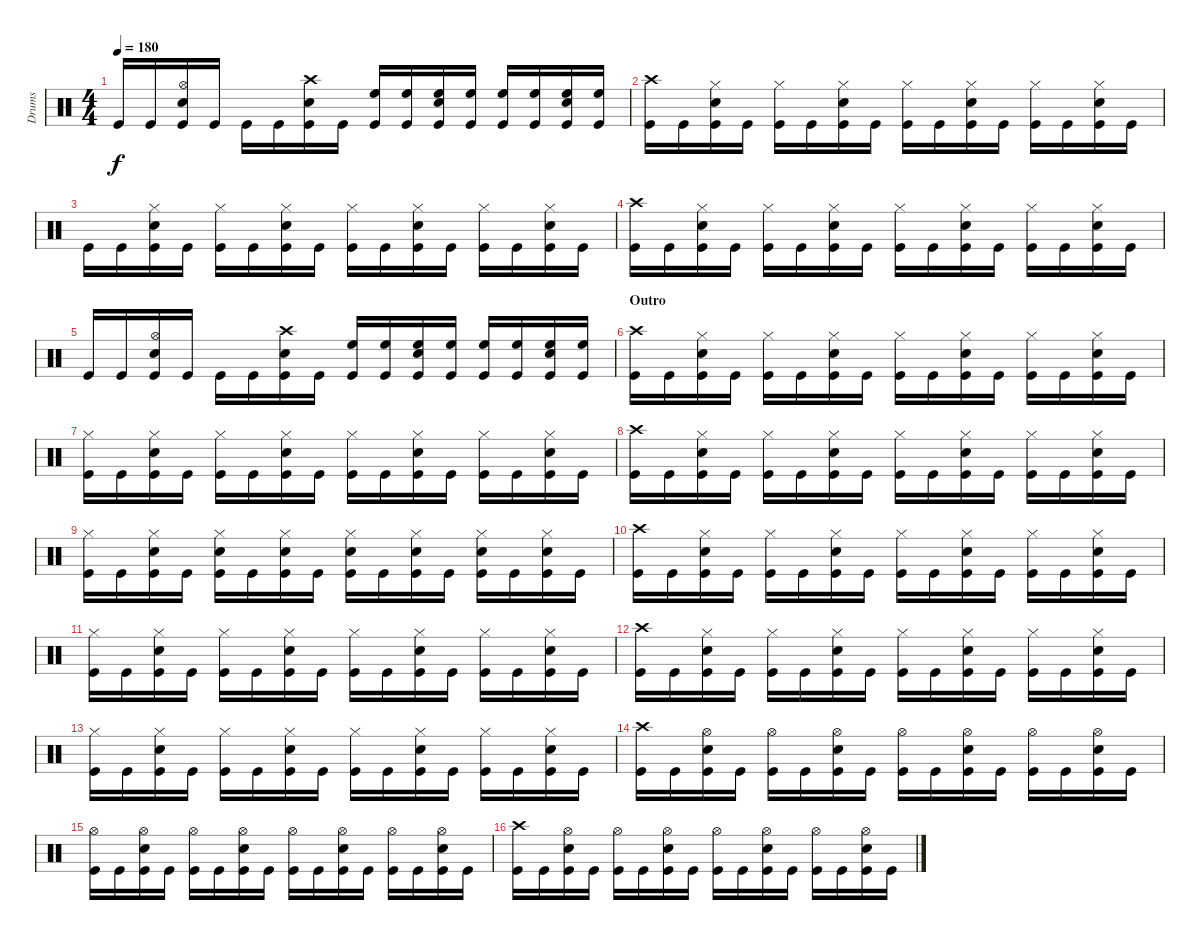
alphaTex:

\track ("Drums" "Drums") {instrument percussion}
\staff {score}
\articulation defaults
\ts (4 4)
\tempo 180
\clef neutral
\ks c "Kick (hit)".16{dy f} "Kick (hit)".16
("Hi-Hat (open)" "Electric Snare (hit)" "Kick (hit)").16 "Kick (hit)".16 "Kick (hit)".16 "Kick (hit)".16 ("Crash high (hit)" "Electric Snare (hit)" "Kick (hit)").16 "Kick (hit)".16 ("High Floor Tom (hit)" "Kick (hit)").16 ("High Floor Tom (hit)" "Kick (hit)").16 ("High Floor Tom (hit)" "Electric Snare (hit)" "Kick (hit)").16 ("High Floor Tom (hit)" "Kick (hit)").16 ("High Floor Tom (hit)" "Kick (hit)").16 ("High Floor Tom (hit)" "Kick (hit)").16 ("High Floor Tom (hit)" "Electric Snare (hit)" "Kick (hit)").16 ("High Floor Tom (hit)" "Kick (hit)").16 |
("Crash high (hit)" "Kick (hit)").16 "Kick (hit)".16 ("Hi-Hat (closed)" "Electric Snare (hit)" "Kick (hit)").16 "Kick (hit)".16 ("Hi-Hat (closed)" "Kick (hit)").16 "Kick (hit)".16 ("Hi-Hat (closed)" "Electric Snare (hit)" "Kick (hit)").16 "Kick (hit)".16 ("Hi-Hat (closed)" "Kick (hit)").16 "Kick (hit)".16 ("Hi-Hat (closed)" "Electric Snare (hit)" "Kick (hit)").16 "Kick (hit)".16 ("Hi-Hat (closed)" "Kick (hit)").16 "Kick (hit)".16 ("Hi-Hat (closed)" "Electric Snare (hit)" "Kick (hit)").16 "Kick (hit)".16 |
"Kick (hit)".16 "Kick (hit)".16 ("Hi-Hat (closed)" "Electric Snare (hit)" "Kick (hit)").16 "Kick (hit)".16 ("Hi-Hat (closed)" "Kick (hit)").16 "Kick (hit)".16 ("Hi-Hat (closed)" "Electric Snare (hit)" "Kick (hit)").16 "Kick (hit)".16 ("Hi-Hat (closed)" "Kick (hit)").16 "Kick (hit)".16 ("Hi-Hat (closed)" "Electric Snare (hit)" "Kick (hit)").16 "Kick (hit)".16 ("Hi-Hat (closed)" "Kick (hit)").16 "Kick (hit)".16 ("Hi-Hat (closed)" "Electric Snare (hit)" "Kick (hit)").16 "Kick (hit)".16 |
("Crash high (hit)" "Kick (hit)").16 "Kick (hit)".16 ("Hi-Hat (closed)" "Electric Snare (hit)" "Kick (hit)").16 "Kick (hit)".16 ("Hi-Hat (closed)" "Kick (hit)").16 "Kick (hit)".16 ("Hi-Hat (closed)" "Electric Snare (hit)" "Kick (hit)").16 "Kick (hit)".16 ("Hi-Hat (closed)" "Kick (hit)").16 "Kick (hit)".16 ("Hi-Hat (closed)" "Electric Snare (hit)" "Kick (hit)").16 "Kick (hit)".16 ("Hi-Hat (closed)" "Kick (hit)").16 "Kick (hit)".16 ("Hi-Hat (closed)" "Electric Snare (hit)" "Kick (hit)").16 "Kick (hit)".16 |
"Kick (hit)".16 "Kick (hit)".16 ("Hi-Hat (open)" "Electric Snare (hit)" "Kick (hit)").16 "Kick (hit)".16 "Kick (hit)".16 "Kick (hit)".16 ("Crash high (hit)" "Electric Snare (hit)" "Kick (hit)").16 "Kick (hit)".16 ("High Floor Tom (hit)" "Kick (hit)").16 ("High Floor Tom (hit)" "Kick (hit)").16 ("High Floor Tom (hit)" "Electric Snare (hit)" "Kick (hit)").16 ("High Floor Tom (hit)" "Kick (hit)").16 ("High Floor Tom (hit)" "Kick (hit)").16 ("High Floor Tom (hit)" "Kick (hit)").16 ("High Floor Tom (hit)" "Electric Snare (hit)" "Kick (hit)").16 ("High Floor Tom (hit)" "Kick (hit)").16 |
\section ("" "Outro")
("Crash high (hit)" "Kick (hit)").16 "Kick (hit)".16 ("Hi-Hat (closed)" "Electric Snare (hit)" "Kick (hit)").16 "Kick (hit)".16 ("Hi-Hat (closed)" "Kick (hit)").16 "Kick (hit)".16 ("Hi-Hat (closed)" "Electric Snare (hit)" "Kick (hit)").16 "Kick (hit)".16 ("Hi-Hat (closed)" "Kick (hit)").16 "Kick (hit)".16 ("Hi-Hat (closed)" "Electric Snare (hit)" "Kick (hit)").16 "Kick (hit)".16 ("Hi-Hat (closed)" "Kick (hit)").16 "Kick (hit)".16 ("Hi-Hat (closed)" "Electric Snare (hit)" "Kick (hit)").16 "Kick (hit)".16 |
("Hi-Hat (closed)" "Kick (hit)").16 "Kick (hit)".16 ("Hi-Hat (closed)" "Electric Snare (hit)" "Kick (hit)").16 "Kick (hit)".16 ("Hi-Hat (closed)" "Kick (hit)").16 "Kick (hit)".16 ("Hi-Hat (closed)" "Electric Snare (hit)" "Kick (hit)").16 "Kick (hit)".16 ("Hi-Hat (closed)" "Kick (hit)").16 "Kick (hit)".16 ("Hi-Hat (closed)" "Electric Snare (hit)" "Kick (hit)").16 "Kick (hit)".16 ("Hi-Hat (closed)" "Kick (hit)").16 "Kick (hit)".16 ("Hi-Hat (closed)" "Electric Snare (hit)" "Kick (hit)").16 "Kick (hit)".16 |
("Crash high (hit)" "Kick (hit)").16 "Kick (hit)".16 ("Hi-Hat (closed)" "Electric Snare (hit)" "Kick (hit)").16 "Kick (hit)".16 ("Hi-Hat (closed)" "Kick (hit)").16 "Kick (hit)".16 ("Hi-Hat (closed)" "Electric Snare (hit)" "Kick (hit)").16 "Kick (hit)".16 ("Hi-Hat (closed)" "Kick (hit)").16 "Kick (hit)".16 ("Hi-Hat (closed)" "Electric Snare (hit)" "Kick (hit)").16 "Kick (hit)".16 ("Hi-Hat (closed)" "Kick (hit)").16 "Kick (hit)".16 ("Hi-Hat (closed)" "Electric Snare (hit)" "Kick (hit)").16 "Kick (hit)".16 |
("Hi-Hat (closed)" "Kick (hit)").16 "Kick (hit)".16 ("Hi-Hat (closed)" "Electric Snare (hit)" "Kick (hit)").16 "Kick (hit)".16 ("Hi-Hat (closed)" "Electric Snare (hit)" "Kick (hit)").16 "Kick (hit)".16 ("Hi-Hat (closed)" "Electric Snare (hit)" "Kick (hit)").16 "Kick (hit)".16 ("Hi-Hat (closed)" "Electric Snare (hit)" "Kick (hit)").16 "Kick (hit)".16 ("Hi-Hat (closed)" "Electric Snare (hit)" "Kick (hit)").16 "Kick (hit)".16 ("Hi-Hat (closed)" "Electric Snare (hit)" "Kick (hit)").16 "Kick (hit)".16 ("Hi-Hat (closed)" "Electric Snare (hit)" "Kick (hit)").16 "Kick (hit)".16 |
("Crash high (hit)" "Kick (hit)").16 "Kick (hit)".16 ("Hi-Hat (closed)" "Electric Snare (hit)" "Kick (hit)").16 "Kick (hit)".16 ("Hi-Hat (closed)" "Kick (hit)").16 "Kick (hit)".16 ("Hi-Hat (closed)" "Electric Snare (hit)" "Kick (hit)").16 "Kick (hit)".16 ("Hi-Hat (closed)" "Kick (hit)").16 "Kick (hit)".16 ("Hi-Hat (closed)" "Electric Snare (hit)" "Kick (hit)").16 "Kick (hit)".16 ("Hi-Hat (closed)" "Kick (hit)").16 "Kick (hit)".16 ("Hi-Hat (closed)" "Electric Snare (hit)" "Kick (hit)").16 "Kick (hit)".16 |
("Hi-Hat (closed)" "Kick (hit)").16 "Kick (hit)".16 ("Hi-Hat (closed)" "Electric Snare (hit)" "Kick (hit)").16 "Kick (hit)".16 ("Hi-Hat (closed)" "Kick (hit)").16 "Kick (hit)".16 ("Hi-Hat (closed)" "Electric Snare (hit)" "Kick (hit)").16 "Kick (hit)".16 ("Hi-Hat (closed)" "Kick (hit)").16 "Kick (hit)".16 ("Hi-Hat (closed)" "Electric Snare (hit)" "Kick (hit)").16 "Kick (hit)".16 ("Hi-Hat (closed)" "Kick (hit)").16 "Kick (hit)".16 ("Hi-Hat (closed)" "Electric Snare (hit)" "Kick (hit)").16 "Kick (hit)".16 |
("Crash high (hit)" "Kick (hit)").16 "Kick (hit)".16 ("Hi-Hat (closed)" "Electric Snare (hit)" "Kick (hit)").16 "Kick (hit)".16 ("Hi-Hat (closed)" "Kick (hit)").16 "Kick (hit)".16 ("Hi-Hat (closed)" "Electric Snare (hit)" "Kick (hit)").16 "Kick (hit)".16 ("Hi-Hat (closed)" "Kick (hit)").16 "Kick (hit)".16 ("Hi-Hat (closed)" "Electric Snare (hit)" "Kick (hit)").16 "Kick (hit)".16 ("Hi-Hat (closed)" "Kick (hit)").16 "Kick (hit)".16 ("Hi-Hat (closed)" "Electric Snare (hit)" "Kick (hit)").16 "Kick (hit)".16 |
("Hi-Hat (closed)" "Kick (hit)").16 "Kick (hit)".16 ("Hi-Hat (closed)" "Electric Snare (hit)" "Kick (hit)").16 "Kick (hit)".16 ("Hi-Hat (closed)" "Kick (hit)").16 "Kick (hit)".16 ("Hi-Hat (closed)" "Electric Snare (hit)" "Kick (hit)").16 "Kick (hit)".16 ("Hi-Hat (closed)" "Kick (hit)").16 "Kick (hit)".16 ("Hi-Hat (closed)" "Electric Snare (hit)" "Kick (hit)").16 "Kick (hit)".16 ("Hi-Hat (closed)" "Kick (hit)").16 "Kick (hit)".16 ("Hi-Hat (closed)" "Electric Snare (hit)" "Kick (hit)").16 "Kick (hit)".16 |
("Crash high (hit)" "Kick (hit)").16 "Kick (hit)".16 ("Hi-Hat (open)" "Electric Snare (hit)" "Kick (hit)").16 "Kick (hit)".16 ("Hi-Hat (open)" "Kick (hit)").16 "Kick (hit)".16 ("Hi-Hat (open)" "Electric Snare (hit)" "Kick (hit)").16 "Kick (hit)".16 ("Hi-Hat (open)" "Kick (hit)").16 "Kick (hit)".16 ("Hi-Hat (open)" "Electric Snare (hit)" "Kick (hit)").16 "Kick (hit)".16 ("Hi-Hat (open)" "Kick (hit)").16 "Kick (hit)".16 ("Hi-Hat (open)" "Electric Snare (hit)" "Kick (hit)").16 "Kick (hit)".16 |
("Hi-Hat (open)" "Kick (hit)").16 "Kick (hit)".16 ("Hi-Hat (open)" "Electric Snare (hit)" "Kick (hit)").16 "Kick (hit)".16 ("Hi-Hat (open)" "Kick (hit)").16 "Kick (hit)".16 ("Hi-Hat (open)" "Electric Snare (hit)" "Kick (hit)").16 "Kick (hit)".16 ("Hi-Hat (open)" "Kick (hit)").16 "Kick (hit)".16 ("Hi-Hat (open)" "Electric Snare (hit)" "Kick (hit)").16 "Kick (hit)".16 ("Hi-Hat (open)" "Kick (hit)").16 "Kick (hit)".16 ("Hi-Hat (open)" "Electric Snare (hit)" "Kick (hit)").16 "Kick (hit)".16 |
("Crash high (hit)" "Kick (hit)").16 "Kick (hit)".16 ("Hi-Hat (open)" "Electric Snare (hit)" "Kick (hit)").16 "Kick (hit)".16 ("Hi-Hat (open)" "Kick (hit)").16 "Kick (hit)".16 ("Hi-Hat (open)" "Electric Snare (hit)" "Kick (hit)").16 "Kick (hit)".16 ("Hi-Hat (open)" "Kick (hit)").16 "Kick (hit)".16 ("Hi-Hat (open)" "Electric Snare (hit)" "Kick (hit)").16 "Kick (hit)".16 ("Hi-Hat (open)" "Kick (hit)").16 "Kick (hit)".16 ("Hi-Hat (open)" "Electric Snare (hit)" "Kick (hit)").16 "Kick (hit)".16
